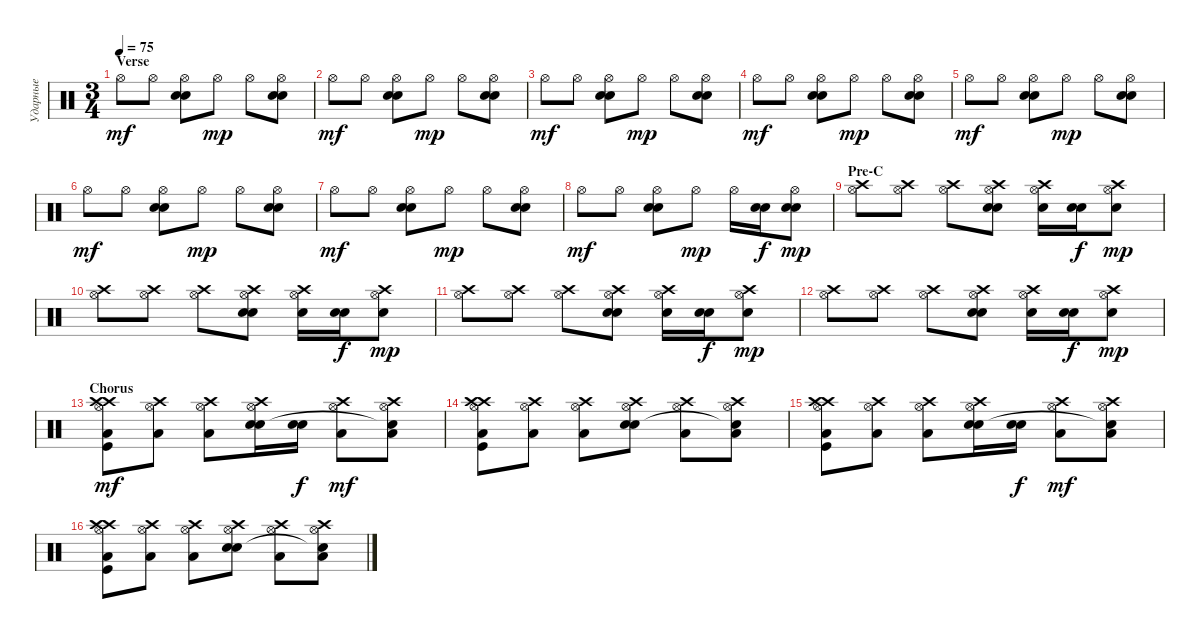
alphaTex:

\track ("Ударные" "Ударные") {instrument percussion}
\staff {score}
\articulation defaults
\ts (3 4)
\section ("" "Verse")
\tempo 75
\clef neutral
\ks c "Hi-Hat (open)".8{dy mf} "Hi-Hat (open)".8
("Hi-Hat (open)" "Electric Snare (hit)" "Electric Snare (hit)").8 "Hi-Hat (open)".8{dy mp} "Hi-Hat (open)".8 ("Hi-Hat (open)" "Electric Snare (hit)" "Electric Snare (hit)").8 |
"Hi-Hat (open)".8{dy mf} "Hi-Hat (open)".8 ("Hi-Hat (open)" "Electric Snare (hit)" "Electric Snare (hit)").8 "Hi-Hat (open)".8{dy mp} "Hi-Hat (open)".8 ("Hi-Hat (open)" "Electric Snare (hit)" "Electric Snare (hit)").8 |
"Hi-Hat (open)".8{dy mf} "Hi-Hat (open)".8 ("Hi-Hat (open)" "Electric Snare (hit)" "Electric Snare (hit)").8 "Hi-Hat (open)".8{dy mp} "Hi-Hat (open)".8 ("Hi-Hat (open)" "Electric Snare (hit)" "Electric Snare (hit)").8 |
"Hi-Hat (open)".8{dy mf} "Hi-Hat (open)".8 ("Hi-Hat (open)" "Electric Snare (hit)" "Electric Snare (hit)").8 "Hi-Hat (open)".8{dy mp} "Hi-Hat (open)".8 ("Hi-Hat (open)" "Electric Snare (hit)" "Electric Snare (hit)").8 |
"Hi-Hat (open)".8{dy mf} "Hi-Hat (open)".8 ("Hi-Hat (open)" "Electric Snare (hit)" "Electric Snare (hit)").8 "Hi-Hat (open)".8{dy mp} "Hi-Hat (open)".8 ("Hi-Hat (open)" "Electric Snare (hit)" "Electric Snare (hit)").8 |
"Hi-Hat (open)".8{dy mf} "Hi-Hat (open)".8 ("Hi-Hat (open)" "Electric Snare (hit)" "Electric Snare (hit)").8 "Hi-Hat (open)".8{dy mp} "Hi-Hat (open)".8 ("Hi-Hat (open)" "Electric Snare (hit)" "Electric Snare (hit)").8 |
"Hi-Hat (open)".8{dy mf} "Hi-Hat (open)".8 ("Hi-Hat (open)" "Electric Snare (hit)" "Electric Snare (hit)").8 "Hi-Hat (open)".8{dy mp} "Hi-Hat (open)".8 ("Hi-Hat (open)" "Electric Snare (hit)" "Electric Snare (hit)").8 |
"Hi-Hat (open)".8{dy mf} "Hi-Hat (open)".8 ("Hi-Hat (open)" "Electric Snare (hit)" "Electric Snare (hit)").8 "Hi-Hat (open)".8{dy mp} "Hi-Hat (open)".16 ("Electric Snare (hit)" "Electric Snare (hit)").16{dy f} ("Hi-Hat (open)" "Electric Snare (hit)" "Electric Snare (hit)").8{dy mp} |
\section ("" "Pre-C")
("Hi-Hat (open)" "Crash high (hit)").8 ("Hi-Hat (open)" "Crash high (hit)").8 ("Hi-Hat (open)" "Crash high (hit)").8 ("Hi-Hat (open)" "Crash high (hit)" "Electric Snare (hit)" "Electric Snare (hit)").8 ("Hi-Hat (open)" "Crash high (hit)" "Snare (hit) 2").16 ("Electric Snare (hit)" "Electric Snare (hit)").16{dy f} ("Hi-Hat (open)" "Crash high (hit)" "Snare (hit) 2").8{dy mp} |
("Hi-Hat (open)" "Crash high (hit)").8 ("Hi-Hat (open)" "Crash high (hit)").8 ("Hi-Hat (open)" "Crash high (hit)").8 ("Hi-Hat (open)" "Crash high (hit)" "Electric Snare (hit)" "Electric Snare (hit)").8 ("Hi-Hat (open)" "Crash high (hit)" "Snare (hit) 2").16 ("Electric Snare (hit)" "Electric Snare (hit)").16{dy f} ("Hi-Hat (open)" "Crash high (hit)" "Snare (hit) 2").8{dy mp} |
("Hi-Hat (open)" "Crash high (hit)").8 ("Hi-Hat (open)" "Crash high (hit)").8 ("Hi-Hat (open)" "Crash high (hit)").8 ("Hi-Hat (open)" "Crash high (hit)" "Electric Snare (hit)" "Electric Snare (hit)").8 ("Hi-Hat (open)" "Crash high (hit)" "Snare (hit) 2").16 ("Electric Snare (hit)" "Electric Snare (hit)").16{dy f} ("Hi-Hat (open)" "Crash high (hit)" "Snare (hit) 2").8{dy mp} |
("Hi-Hat (open)" "Crash high (hit)").8 ("Hi-Hat (open)" "Crash high (hit)").8 ("Hi-Hat (open)" "Crash high (hit)").8 ("Hi-Hat (open)" "Crash high (hit)" "Electric Snare (hit)" "Electric Snare (hit)").8 ("Hi-Hat (open)" "Crash high (hit)" "Snare (hit) 2").16 ("Electric Snare (hit)" "Electric Snare (hit)").16{dy f} ("Hi-Hat (open)" "Crash high (hit)" "Snare (hit) 2").8{dy mp} |
\section ("" "Chorus")
("Hi-Hat (open)" "Crash high (hit)" "Low Floor Tom (hit)" "Kick (hit)" "Crash high (hit)").8{dy mf} ("Hi-Hat (open)" "Crash high (hit)" "Low Floor Tom (hit)").8 ("Hi-Hat (open)" "Crash high (hit)" "Low Floor Tom (hit)").8 ("Hi-Hat (open)" "Crash high (hit)" "Electric Snare (hit)" "Electric Snare (hit)").16 ("Electric Snare (hit)" "Electric Snare (hit)").16{dy f} ("Hi-Hat (open)" "Crash high (hit)" "Low Floor Tom (hit)").8{dy mf} ("Hi-Hat (open)" "Crash high (hit)" "Low Floor Tom (hit)" "Snare (hit)"{t}).8 |
("Hi-Hat (open)" "Crash high (hit)" "Low Floor Tom (hit)" "Kick (hit)" "Crash high (hit)").8 ("Hi-Hat (open)" "Crash high (hit)" "Low Floor Tom (hit)").8 ("Hi-Hat (open)" "Crash high (hit)" "Low Floor Tom (hit)").8 ("Hi-Hat (open)" "Crash high (hit)" "Electric Snare (hit)" "Electric Snare (hit)").8 ("Hi-Hat (open)" "Crash high (hit)" "Low Floor Tom (hit)").8 ("Hi-Hat (open)" "Crash high (hit)" "Low Floor Tom (hit)" "Snare (hit)"{t}).8 |
("Hi-Hat (open)" "Crash high (hit)" "Low Floor Tom (hit)" "Kick (hit)" "Crash high (hit)").8 ("Hi-Hat (open)" "Crash high (hit)" "Low Floor Tom (hit)").8 ("Hi-Hat (open)" "Crash high (hit)" "Low Floor Tom (hit)").8 ("Hi-Hat (open)" "Crash high (hit)" "Electric Snare (hit)" "Electric Snare (hit)").16 ("Electric Snare (hit)" "Electric Snare (hit)").16{dy f} ("Hi-Hat (open)" "Crash high (hit)" "Low Floor Tom (hit)").8{dy mf} ("Hi-Hat (open)" "Crash high (hit)" "Low Floor Tom (hit)" "Snare (hit)"{t}).8 |
("Hi-Hat (open)" "Crash high (hit)" "Low Floor Tom (hit)" "Kick (hit)" "Crash high (hit)").8 ("Hi-Hat (open)" "Crash high (hit)" "Low Floor Tom (hit)").8 ("Hi-Hat (open)" "Crash high (hit)" "Low Floor Tom (hit)").8 ("Hi-Hat (open)" "Crash high (hit)" "Electric Snare (hit)" "Electric Snare (hit)").8 ("Hi-Hat (open)" "Crash high (hit)" "Low Floor Tom (hit)").8 ("Hi-Hat (open)" "Crash high (hit)" "Low Floor Tom (hit)" "Snare (hit)"{t}).8
